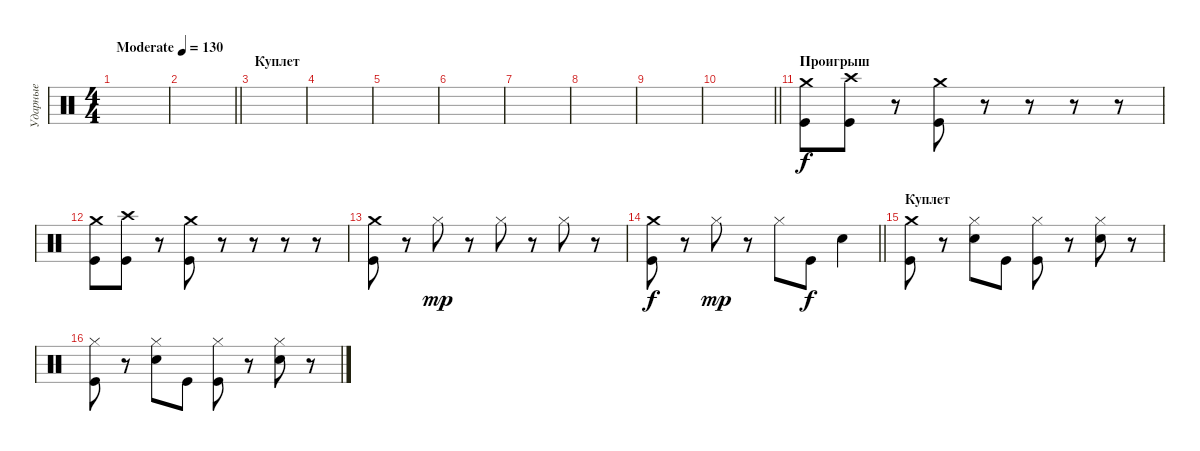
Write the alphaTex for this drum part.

\track ("Ударные" "Ударные") {instrument percussion}
\staff {score}
\articulation defaults
\ts (4 4)
\tempo (130 "Moderate")
\clef neutral
\ks c
|
\barLineRight lightlight
|
\section ("" "Куплет")
|
|
|
|
|
|
|
\barLineRight lightlight
|
\section ("" "Проигрыш")
("Crash medium (hit)" "Kick (hit)").8 ("Crash high (hit)" "Kick (hit)").8 r.8 ("Crash medium (hit)" "Kick (hit)").8 r.8 r.8 r.8 r.8 |
("Crash medium (hit)" "Kick (hit)").8 ("Crash high (hit)" "Kick (hit)").8 r.8 ("Crash medium (hit)" "Kick (hit)").8 r.8 r.8 r.8 r.8 |
("Crash medium (hit)" "Kick (hit)").8{dy f} r.8 "Hi-Hat (closed)".8{dy mp} r.8 "Hi-Hat (closed)".8 r.8 "Hi-Hat (closed)".8 r.8 |
\barLineRight lightlight
("Crash medium (hit)" "Kick (hit)").8{dy f} r.8 "Hi-Hat (closed)".8{dy mp} r.8 "Hi-Hat (closed)".8 "Kick (hit)".8{dy f} "Electric Snare (hit)".4 |
\section ("" "Куплет")
("Crash medium (hit)" "Kick (hit)").8 r.8 ("Hi-Hat (closed)" "Electric Snare (hit)").8 "Kick (hit)".8 ("Hi-Hat (closed)" "Kick (hit)").8 r.8 ("Hi-Hat (closed)" "Electric Snare (hit)").8 r.8 |
("Hi-Hat (closed)" "Kick (hit)").8 r.8 ("Hi-Hat (closed)" "Electric Snare (hit)").8 "Kick (hit)".8 ("Hi-Hat (closed)" "Kick (hit)").8 r.8 ("Hi-Hat (closed)" "Electric Snare (hit)").8 r.8
